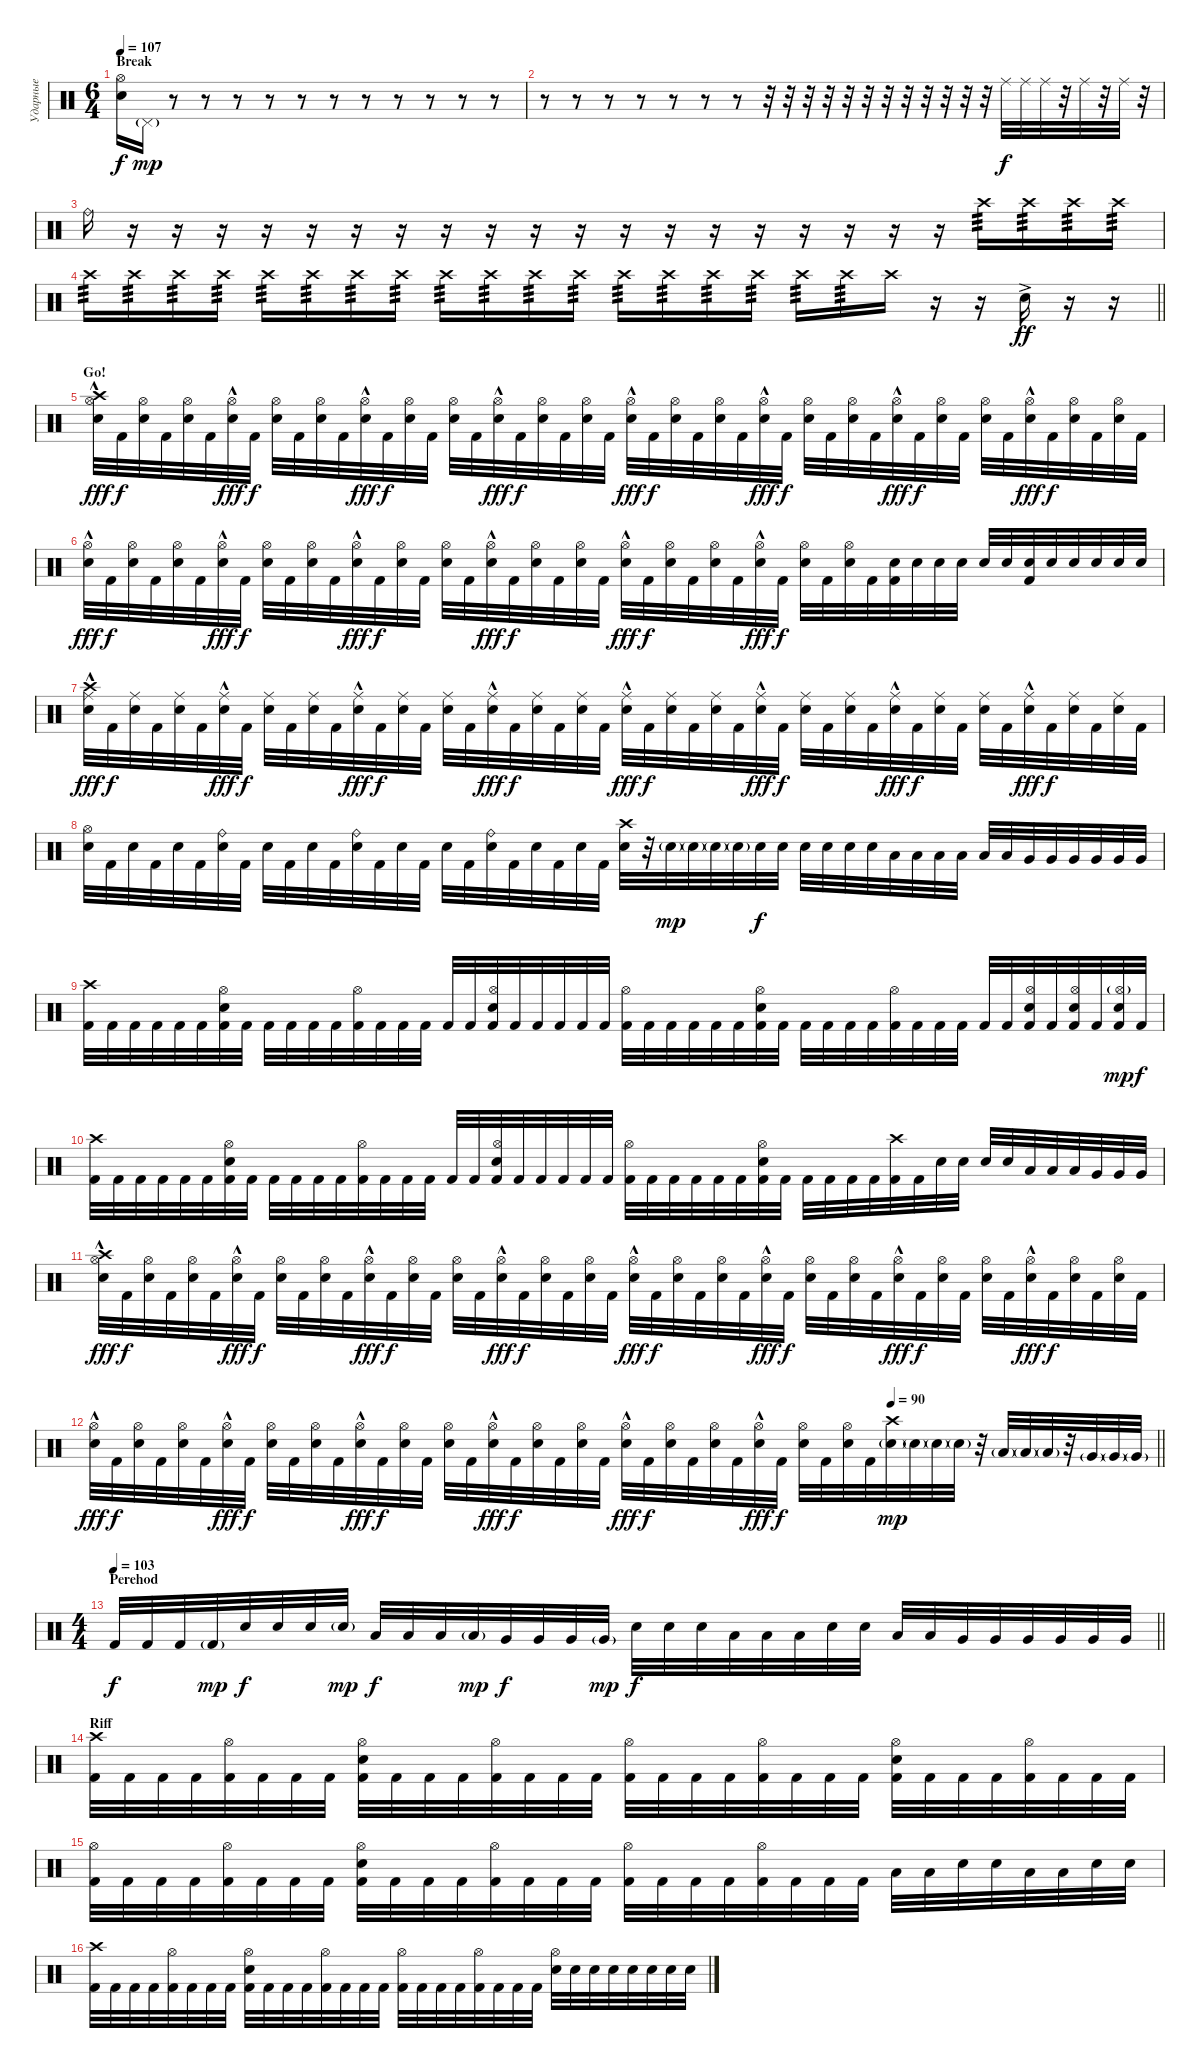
\track ("Ударные" "Ударные") {instrument percussion}
\staff {score}
\articulation defaults
\ts (6 4)
\section ("" "Break")
\tempo 107
\clef neutral
\ks c
("Electric Snare (hit)" "Hi-Hat (open)").16{dy f} "Pedal Hi-Hat (hit)"{g}.16{dy mp} r.8 r.8 r.8 r.8 r.8 r.8 r.8 r.8 r.8 r.8 r.8 |
r.8 r.8 r.8 r.8 r.8 r.8 r.8 r.32 r.32 r.32 r.32 r.32 r.32 r.32 r.32 r.32 r.32 r.32 r.32 "Ride (middle)".32{dy f} "Ride (middle)".32 "Ride (middle)".32 r.32 "Ride (middle)".32 r.32 "Ride (middle)".32 r.32 |
"Ride (bell)".16 r.16 r.16 r.16 r.16 r.16 r.16 r.16 r.16 r.16 r.16 r.16 r.16 r.16 r.16 r.16 r.16 r.16{volume 4} r.16 r.16 "Crash high (hit)".16{tp 3 volume 16} "Crash high (hit)".16{tp 3} "Crash high (hit)".16{tp 3} "Crash high (hit)".16{tp 3} |
\barLineRight lightlight "Crash high (hit)".16{tp 3} "Crash high (hit)".16{tp 3} "Crash high (hit)".16{tp 3} "Crash high (hit)".16{tp 3} "Crash high (hit)".16{tp 3} "Crash high (hit)".16{tp 3} "Crash high (hit)".16{tp 3} "Crash high (hit)".16{tp 3} "Crash high (hit)".16{tp 3} "Crash high (hit)".16{tp 3} "Crash high (hit)".16{tp 3} "Crash high (hit)".16{tp 3} "Crash high (hit)".16{tp 3} "Crash high (hit)".16{tp 3} "Crash high (hit)".16{tp 3} "Crash high (hit)".16{tp 3} "Crash high (hit)".16{tp 3} "Crash high (hit)".16{tp 3} "Crash high (hit)".16
r.16 r.16 "Electric Snare (hit)"{ac}.16{dy ff} r.16 r.16 |
\section ("" "Go!")
("Crash high (hit)" "Electric Snare (hit)" "Hi-Hat (open)"{hac}).32{dy fff} "Kick (hit) 2".32{dy f} ("Electric Snare (hit)" "Hi-Hat (open)").32 "Kick (hit) 2".32 ("Electric Snare (hit)" "Hi-Hat (open)").32 "Kick (hit) 2".32 ("Electric Snare (hit)" "Hi-Hat (open)"{hac}).32{dy fff} "Kick (hit) 2".32{dy f} ("Electric Snare (hit)" "Hi-Hat (open)").32 "Kick (hit) 2".32 ("Electric Snare (hit)" "Hi-Hat (open)").32 "Kick (hit) 2".32 ("Electric Snare (hit)" "Hi-Hat (open)"{hac}).32{dy fff} "Kick (hit) 2".32{dy f} ("Electric Snare (hit)" "Hi-Hat (open)").32 "Kick (hit) 2".32 ("Electric Snare (hit)" "Hi-Hat (open)").32 "Kick (hit) 2".32 ("Electric Snare (hit)" "Hi-Hat (open)"{hac}).32{dy fff} "Kick (hit) 2".32{dy f} ("Electric Snare (hit)" "Hi-Hat (open)").32 "Kick (hit) 2".32 ("Electric Snare (hit)" "Hi-Hat (open)").32 "Kick (hit) 2".32 ("Electric Snare (hit)" "Hi-Hat (open)"{hac}).32{dy fff} "Kick (hit) 2".32{dy f} ("Electric Snare (hit)" "Hi-Hat (open)").32 "Kick (hit) 2".32 ("Electric Snare (hit)" "Hi-Hat (open)").32 "Kick (hit) 2".32 ("Electric Snare (hit)" "Hi-Hat (open)"{hac}).32{dy fff} "Kick (hit) 2".32{dy f} ("Electric Snare (hit)" "Hi-Hat (open)").32 "Kick (hit) 2".32 ("Electric Snare (hit)" "Hi-Hat (open)").32 "Kick (hit) 2".32 ("Electric Snare (hit)" "Hi-Hat (open)"{hac}).32{dy fff} "Kick (hit) 2".32{dy f} ("Electric Snare (hit)" "Hi-Hat (open)").32 "Kick (hit) 2".32 ("Electric Snare (hit)" "Hi-Hat (open)").32 "Kick (hit) 2".32 ("Electric Snare (hit)" "Hi-Hat (open)"{hac}).32{dy fff} "Kick (hit) 2".32{dy f} ("Electric Snare (hit)" "Hi-Hat (open)").32 "Kick (hit) 2".32 ("Electric Snare (hit)" "Hi-Hat (open)").32 "Kick (hit) 2".32 |
("Electric Snare (hit)" "Hi-Hat (open)"{hac}).32{dy fff} "Kick (hit) 2".32{dy f} ("Electric Snare (hit)" "Hi-Hat (open)").32 "Kick (hit) 2".32 ("Electric Snare (hit)" "Hi-Hat (open)").32 "Kick (hit) 2".32 ("Electric Snare (hit)" "Hi-Hat (open)"{hac}).32{dy fff} "Kick (hit) 2".32{dy f} ("Electric Snare (hit)" "Hi-Hat (open)").32 "Kick (hit) 2".32 ("Electric Snare (hit)" "Hi-Hat (open)").32 "Kick (hit) 2".32 ("Electric Snare (hit)" "Hi-Hat (open)"{hac}).32{dy fff} "Kick (hit) 2".32{dy f} ("Electric Snare (hit)" "Hi-Hat (open)").32 "Kick (hit) 2".32 ("Electric Snare (hit)" "Hi-Hat (open)").32 "Kick (hit) 2".32 ("Electric Snare (hit)" "Hi-Hat (open)"{hac}).32{dy fff} "Kick (hit) 2".32{dy f} ("Electric Snare (hit)" "Hi-Hat (open)").32 "Kick (hit) 2".32 ("Electric Snare (hit)" "Hi-Hat (open)").32 "Kick (hit) 2".32 ("Electric Snare (hit)" "Hi-Hat (open)"{hac}).32{dy fff} "Kick (hit) 2".32{dy f} ("Electric Snare (hit)" "Hi-Hat (open)").32 "Kick (hit) 2".32 ("Electric Snare (hit)" "Hi-Hat (open)").32 "Kick (hit) 2".32 ("Electric Snare (hit)" "Hi-Hat (open)"{hac}).32{dy fff} "Kick (hit) 2".32{dy f} ("Electric Snare (hit)" "Hi-Hat (open)").32 "Kick (hit) 2".32 ("Electric Snare (hit)" "Hi-Hat (open)").32 "Kick (hit) 2".32 ("Electric Snare (hit)" "Kick (hit) 2").32 "Electric Snare (hit)".32 "Electric Snare (hit)".32 "Electric Snare (hit)".32 "Electric Snare (hit)".32 "Electric Snare (hit)".32 ("Electric Snare (hit)" "Kick (hit) 2").32 "Electric Snare (hit)".32 "Electric Snare (hit)".32 "Electric Snare (hit)".32 "Electric Snare (hit)".32 "Electric Snare (hit)".32 |
("Crash high (hit)" "Electric Snare (hit)" "Ride (middle)"{hac}).32{dy fff} "Kick (hit) 2".32{dy f} ("Electric Snare (hit)" "Ride (middle)").32 "Kick (hit) 2".32 ("Electric Snare (hit)" "Ride (middle)").32 "Kick (hit) 2".32 ("Electric Snare (hit)" "Ride (middle)"{hac}).32{dy fff} "Kick (hit) 2".32{dy f} ("Electric Snare (hit)" "Ride (middle)").32 "Kick (hit) 2".32 ("Electric Snare (hit)" "Ride (middle)").32 "Kick (hit) 2".32 ("Electric Snare (hit)" "Ride (middle)"{hac}).32{dy fff} "Kick (hit) 2".32{dy f} ("Electric Snare (hit)" "Ride (middle)").32 "Kick (hit) 2".32 ("Electric Snare (hit)" "Ride (middle)").32 "Kick (hit) 2".32 ("Electric Snare (hit)" "Ride (middle)"{hac}).32{dy fff} "Kick (hit) 2".32{dy f} ("Electric Snare (hit)" "Ride (middle)").32 "Kick (hit) 2".32 ("Electric Snare (hit)" "Ride (middle)").32 "Kick (hit) 2".32 ("Electric Snare (hit)" "Ride (middle)"{hac}).32{dy fff} "Kick (hit) 2".32{dy f} ("Electric Snare (hit)" "Ride (middle)").32 "Kick (hit) 2".32 ("Electric Snare (hit)" "Ride (middle)").32 "Kick (hit) 2".32 ("Electric Snare (hit)" "Ride (middle)"{hac}).32{dy fff} "Kick (hit) 2".32{dy f} ("Electric Snare (hit)" "Ride (middle)").32 "Kick (hit) 2".32 ("Electric Snare (hit)" "Ride (middle)").32 "Kick (hit) 2".32 ("Electric Snare (hit)" "Ride (middle)"{hac}).32{dy fff} "Kick (hit) 2".32{dy f} ("Electric Snare (hit)" "Ride (middle)").32 "Kick (hit) 2".32 ("Electric Snare (hit)" "Ride (middle)").32 "Kick (hit) 2".32 ("Electric Snare (hit)" "Ride (middle)"{hac}).32{dy fff} "Kick (hit) 2".32{dy f} ("Electric Snare (hit)" "Ride (middle)").32 "Kick (hit) 2".32 ("Electric Snare (hit)" "Ride (middle)").32 "Kick (hit) 2".32 |
("Hi-Hat (open)" "Electric Snare (hit)").32 "Kick (hit) 2".32 "Electric Snare (hit)".32 "Kick (hit) 2".32 "Electric Snare (hit)".32 "Kick (hit) 2".32 ("Electric Snare (hit)" "Ride (bell)").32 "Kick (hit) 2".32 "Electric Snare (hit)".32 "Kick (hit) 2".32 "Electric Snare (hit)".32 "Kick (hit) 2".32 ("Electric Snare (hit)" "Ride (bell)").32 "Kick (hit) 2".32 "Electric Snare (hit)".32 "Kick (hit) 2".32 "Electric Snare (hit)".32 "Kick (hit) 2".32 ("Electric Snare (hit)" "Ride (bell)").32 "Kick (hit) 2".32 "Electric Snare (hit)".32 "Kick (hit) 2".32 "Electric Snare (hit)".32 "Kick (hit) 2".32 ("Crash high (hit)" "Electric Snare (hit)").32 r.32 "Electric Snare (hit)"{g}.32{dy mp} "Electric Snare (hit)"{g}.32 "Electric Snare (hit)"{g}.32 "Electric Snare (hit)"{g}.32 "Electric Snare (hit)".32{dy f} "Electric Snare (hit)".32 "Electric Snare (hit)".32 "Electric Snare (hit)".32 "Electric Snare (hit)".32 "Electric Snare (hit)".32 "Low Tom (hit)".32 "Low Tom (hit)".32 "Low Tom (hit)".32 "Low Tom (hit)".32 "Low Tom (hit)".32 "Low Tom (hit)".32 "Very Low Tom (hit)".32 "Very Low Tom (hit)".32 "Very Low Tom (hit)".32 "Very Low Tom (hit)".32 "Very Low Tom (hit)".32 "Very Low Tom (hit)".32 |
("Kick (hit) 2" "Crash high (hit)").32 "Kick (hit) 2".32 "Kick (hit) 2".32 "Kick (hit) 2".32 "Kick (hit) 2".32 "Kick (hit) 2".32 ("Kick (hit) 2" "Electric Snare (hit)" "Hi-Hat (open)").32 "Kick (hit) 2".32 "Kick (hit) 2".32 "Kick (hit) 2".32 "Kick (hit) 2".32 "Kick (hit) 2".32 ("Kick (hit) 2" "Hi-Hat (open)").32 "Kick (hit) 2".32 "Kick (hit) 2".32 "Kick (hit) 2".32 "Kick (hit) 2".32 "Kick (hit) 2".32 ("Kick (hit) 2" "Electric Snare (hit)" "Hi-Hat (open)").32 "Kick (hit) 2".32 "Kick (hit) 2".32 "Kick (hit) 2".32 "Kick (hit) 2".32 "Kick (hit) 2".32 ("Kick (hit) 2" "Hi-Hat (open)").32 "Kick (hit) 2".32 "Kick (hit) 2".32 "Kick (hit) 2".32 "Kick (hit) 2".32 "Kick (hit) 2".32 ("Kick (hit) 2" "Electric Snare (hit)" "Hi-Hat (open)").32 "Kick (hit) 2".32 "Kick (hit) 2".32 "Kick (hit) 2".32 "Kick (hit) 2".32 "Kick (hit) 2".32 ("Kick (hit) 2" "Hi-Hat (open)").32 "Kick (hit) 2".32 "Kick (hit) 2".32 "Kick (hit) 2".32 "Kick (hit) 2".32 "Kick (hit) 2".32 ("Kick (hit) 2" "Electric Snare (hit)" "Hi-Hat (open)").32 "Kick (hit) 2".32 ("Kick (hit) 2" "Electric Snare (hit)" "Hi-Hat (open)").32 "Kick (hit) 2".32 ("Kick (hit) 2" "Electric Snare (hit)" "Hi-Hat (open)"{g}).32{dy mp} "Kick (hit) 2".32{dy f} |
("Kick (hit) 2" "Crash high (hit)").32 "Kick (hit) 2".32 "Kick (hit) 2".32 "Kick (hit) 2".32 "Kick (hit) 2".32 "Kick (hit) 2".32 ("Kick (hit) 2" "Electric Snare (hit)" "Hi-Hat (open)").32 "Kick (hit) 2".32 "Kick (hit) 2".32 "Kick (hit) 2".32 "Kick (hit) 2".32 "Kick (hit) 2".32 ("Kick (hit) 2" "Hi-Hat (open)").32 "Kick (hit) 2".32 "Kick (hit) 2".32 "Kick (hit) 2".32 "Kick (hit) 2".32 "Kick (hit) 2".32 ("Kick (hit) 2" "Electric Snare (hit)" "Hi-Hat (open)").32 "Kick (hit) 2".32 "Kick (hit) 2".32 "Kick (hit) 2".32 "Kick (hit) 2".32 "Kick (hit) 2".32 ("Kick (hit) 2" "Hi-Hat (open)").32 "Kick (hit) 2".32 "Kick (hit) 2".32 "Kick (hit) 2".32 "Kick (hit) 2".32 "Kick (hit) 2".32 ("Kick (hit) 2" "Electric Snare (hit)" "Hi-Hat (open)").32 "Kick (hit) 2".32 "Kick (hit) 2".32 "Kick (hit) 2".32 "Kick (hit) 2".32 "Kick (hit) 2".32 ("Kick (hit) 2" "Crash high (hit)").32 "Kick (hit) 2".32 "Electric Snare (hit)".32 "Electric Snare (hit)".32 "Electric Snare (hit)".32 "Electric Snare (hit)".32 "Low Tom (hit)".32 "Low Tom (hit)".32 "Low Tom (hit)".32 "Very Low Tom (hit)".32 "Very Low Tom (hit)".32 "Very Low Tom (hit)".32 |
("Crash high (hit)" "Electric Snare (hit)" "Hi-Hat (open)"{hac}).32{dy fff} "Kick (hit) 2".32{dy f} ("Electric Snare (hit)" "Hi-Hat (open)").32 "Kick (hit) 2".32 ("Electric Snare (hit)" "Hi-Hat (open)").32 "Kick (hit) 2".32 ("Electric Snare (hit)" "Hi-Hat (open)"{hac}).32{dy fff} "Kick (hit) 2".32{dy f} ("Electric Snare (hit)" "Hi-Hat (open)").32 "Kick (hit) 2".32 ("Electric Snare (hit)" "Hi-Hat (open)").32 "Kick (hit) 2".32 ("Electric Snare (hit)" "Hi-Hat (open)"{hac}).32{dy fff} "Kick (hit) 2".32{dy f} ("Electric Snare (hit)" "Hi-Hat (open)").32 "Kick (hit) 2".32 ("Electric Snare (hit)" "Hi-Hat (open)").32 "Kick (hit) 2".32 ("Electric Snare (hit)" "Hi-Hat (open)"{hac}).32{dy fff} "Kick (hit) 2".32{dy f} ("Electric Snare (hit)" "Hi-Hat (open)").32 "Kick (hit) 2".32 ("Electric Snare (hit)" "Hi-Hat (open)").32 "Kick (hit) 2".32 ("Electric Snare (hit)" "Hi-Hat (open)"{hac}).32{dy fff} "Kick (hit) 2".32{dy f} ("Electric Snare (hit)" "Hi-Hat (open)").32 "Kick (hit) 2".32 ("Electric Snare (hit)" "Hi-Hat (open)").32 "Kick (hit) 2".32 ("Electric Snare (hit)" "Hi-Hat (open)"{hac}).32{dy fff} "Kick (hit) 2".32{dy f} ("Electric Snare (hit)" "Hi-Hat (open)").32 "Kick (hit) 2".32 ("Electric Snare (hit)" "Hi-Hat (open)").32 "Kick (hit) 2".32 ("Electric Snare (hit)" "Hi-Hat (open)"{hac}).32{dy fff} "Kick (hit) 2".32{dy f} ("Electric Snare (hit)" "Hi-Hat (open)").32 "Kick (hit) 2".32 ("Electric Snare (hit)" "Hi-Hat (open)").32 "Kick (hit) 2".32 ("Electric Snare (hit)" "Hi-Hat (open)"{hac}).32{dy fff} "Kick (hit) 2".32{dy f} ("Electric Snare (hit)" "Hi-Hat (open)").32 "Kick (hit) 2".32 ("Electric Snare (hit)" "Hi-Hat (open)").32 "Kick (hit) 2".32 |
\tempo (90 0.75)
\barLineRight lightlight
("Electric Snare (hit)" "Hi-Hat (open)"{hac}).32{dy fff} "Kick (hit) 2".32{dy f} ("Electric Snare (hit)" "Hi-Hat (open)").32 "Kick (hit) 2".32 ("Electric Snare (hit)" "Hi-Hat (open)").32 "Kick (hit) 2".32 ("Electric Snare (hit)" "Hi-Hat (open)"{hac}).32{dy fff} "Kick (hit) 2".32{dy f} ("Electric Snare (hit)" "Hi-Hat (open)").32 "Kick (hit) 2".32 ("Electric Snare (hit)" "Hi-Hat (open)").32 "Kick (hit) 2".32 ("Electric Snare (hit)" "Hi-Hat (open)"{hac}).32{dy fff} "Kick (hit) 2".32{dy f} ("Electric Snare (hit)" "Hi-Hat (open)").32 "Kick (hit) 2".32 ("Electric Snare (hit)" "Hi-Hat (open)").32 "Kick (hit) 2".32 ("Electric Snare (hit)" "Hi-Hat (open)"{hac}).32{dy fff} "Kick (hit) 2".32{dy f} ("Electric Snare (hit)" "Hi-Hat (open)").32 "Kick (hit) 2".32 ("Electric Snare (hit)" "Hi-Hat (open)").32 "Kick (hit) 2".32 ("Electric Snare (hit)" "Hi-Hat (open)"{hac}).32{dy fff} "Kick (hit) 2".32{dy f} ("Electric Snare (hit)" "Hi-Hat (open)").32 "Kick (hit) 2".32 ("Electric Snare (hit)" "Hi-Hat (open)").32 "Kick (hit) 2".32 ("Electric Snare (hit)" "Hi-Hat (open)"{hac}).32{dy fff} "Kick (hit) 2".32{dy f} ("Electric Snare (hit)" "Hi-Hat (open)").32 "Kick (hit) 2".32 ("Electric Snare (hit)" "Hi-Hat (open)").32 "Kick (hit) 2".32 ("Electric Snare (hit)"{g} "Crash high (hit)").32{dy mp} "Electric Snare (hit)"{g}.32 "Electric Snare (hit)"{g}.32 "Electric Snare (hit)"{g}.32 r.32 "Low Tom (hit)"{g}.32 "Low Tom (hit)"{g}.32 "Low Tom (hit)"{g}.32 r.32 "Very Low Tom (hit)"{g}.32 "Very Low Tom (hit)"{g}.32 "Very Low Tom (hit)"{g}.32 |
\ts (4 4)
\section ("" "Perehod")
\tempo 103
\barLineRight lightlight "Kick (hit) 2".32{dy f} "Kick (hit) 2".32 "Kick (hit) 2".32 "Kick (hit) 2"{g}.32{dy mp} "Electric Snare (hit)".32{dy f} "Electric Snare (hit)".32 "Electric Snare (hit)".32 "Electric Snare (hit)"{g}.32{dy mp} "Low Tom (hit)".32{dy f} "Low Tom (hit)".32 "Low Tom (hit)".32 "Low Tom (hit)"{g}.32{dy mp} "Very Low Tom (hit)".32{dy f} "Very Low Tom (hit)".32 "Very Low Tom (hit)".32 "Very Low Tom (hit)"{g}.32{dy mp} "Electric Snare (hit)".32{dy f} "Electric Snare (hit)".32 "Electric Snare (hit)".32 "Low Tom (hit)".32 "Low Tom (hit)".32 "Low Tom (hit)".32 "Electric Snare (hit)".32 "Electric Snare (hit)".32 "Low Tom (hit)".32 "Low Tom (hit)".32 "Very Low Tom (hit)".32 "Very Low Tom (hit)".32 "Very Low Tom (hit)".32 "Very Low Tom (hit)".32 "Very Low Tom (hit)".32 "Very Low Tom (hit)".32
|
\section ("" "Riff")
("Kick (hit) 2" "Crash high (hit)").32 "Kick (hit) 2".32 "Kick (hit) 2".32 "Kick (hit) 2".32 ("Kick (hit) 2" "Hi-Hat (open)").32 "Kick (hit) 2".32 "Kick (hit) 2".32 "Kick (hit) 2".32 ("Kick (hit) 2" "Electric Snare (hit)" "Hi-Hat (open)").32 "Kick (hit) 2".32 "Kick (hit) 2".32 "Kick (hit) 2".32 ("Kick (hit) 2" "Hi-Hat (open)").32 "Kick (hit) 2".32 "Kick (hit) 2".32 "Kick (hit) 2".32 ("Kick (hit) 2" "Hi-Hat (open)").32 "Kick (hit) 2".32 "Kick (hit) 2".32 "Kick (hit) 2".32 ("Kick (hit) 2" "Hi-Hat (open)").32 "Kick (hit) 2".32 "Kick (hit) 2".32 "Kick (hit) 2".32 ("Kick (hit) 2" "Electric Snare (hit)" "Hi-Hat (open)").32 "Kick (hit) 2".32 "Kick (hit) 2".32 "Kick (hit) 2".32 ("Kick (hit) 2" "Hi-Hat (open)").32 "Kick (hit) 2".32 "Kick (hit) 2".32 "Kick (hit) 2".32 |
("Kick (hit) 2" "Hi-Hat (open)").32 "Kick (hit) 2".32 "Kick (hit) 2".32 "Kick (hit) 2".32 ("Kick (hit) 2" "Hi-Hat (open)").32 "Kick (hit) 2".32 "Kick (hit) 2".32 "Kick (hit) 2".32 ("Kick (hit) 2" "Electric Snare (hit)" "Hi-Hat (open)").32 "Kick (hit) 2".32 "Kick (hit) 2".32 "Kick (hit) 2".32 ("Kick (hit) 2" "Hi-Hat (open)").32 "Kick (hit) 2".32 "Kick (hit) 2".32 "Kick (hit) 2".32 ("Kick (hit) 2" "Hi-Hat (open)").32 "Kick (hit) 2".32 "Kick (hit) 2".32 "Kick (hit) 2".32 ("Kick (hit) 2" "Hi-Hat (open)").32 "Kick (hit) 2".32 "Kick (hit) 2".32 "Kick (hit) 2".32 "Low Tom (hit)".32 "Low Tom (hit)".32 "Electric Snare (hit)".32 "Electric Snare (hit)".32 "Low Tom (hit)".32 "Low Tom (hit)".32 "Electric Snare (hit)".32 "Electric Snare (hit)".32 |
("Kick (hit) 2" "Crash high (hit)").32 "Kick (hit) 2".32 "Kick (hit) 2".32 "Kick (hit) 2".32 ("Kick (hit) 2" "Hi-Hat (open)").32 "Kick (hit) 2".32 "Kick (hit) 2".32 "Kick (hit) 2".32 ("Kick (hit) 2" "Electric Snare (hit)" "Hi-Hat (open)").32 "Kick (hit) 2".32 "Kick (hit) 2".32 "Kick (hit) 2".32 ("Kick (hit) 2" "Hi-Hat (open)").32 "Kick (hit) 2".32 "Kick (hit) 2".32 "Kick (hit) 2".32 ("Kick (hit) 2" "Hi-Hat (open)").32 "Kick (hit) 2".32 "Kick (hit) 2".32 "Kick (hit) 2".32 ("Kick (hit) 2" "Hi-Hat (open)").32 "Kick (hit) 2".32 "Kick (hit) 2".32 "Kick (hit) 2".32 ("Electric Snare (hit)" "Hi-Hat (open)").32 "Electric Snare (hit)".32 "Electric Snare (hit)".32 "Electric Snare (hit)".32 "Electric Snare (hit)".32 "Electric Snare (hit)".32 "Electric Snare (hit)".32 "Electric Snare (hit)".32
